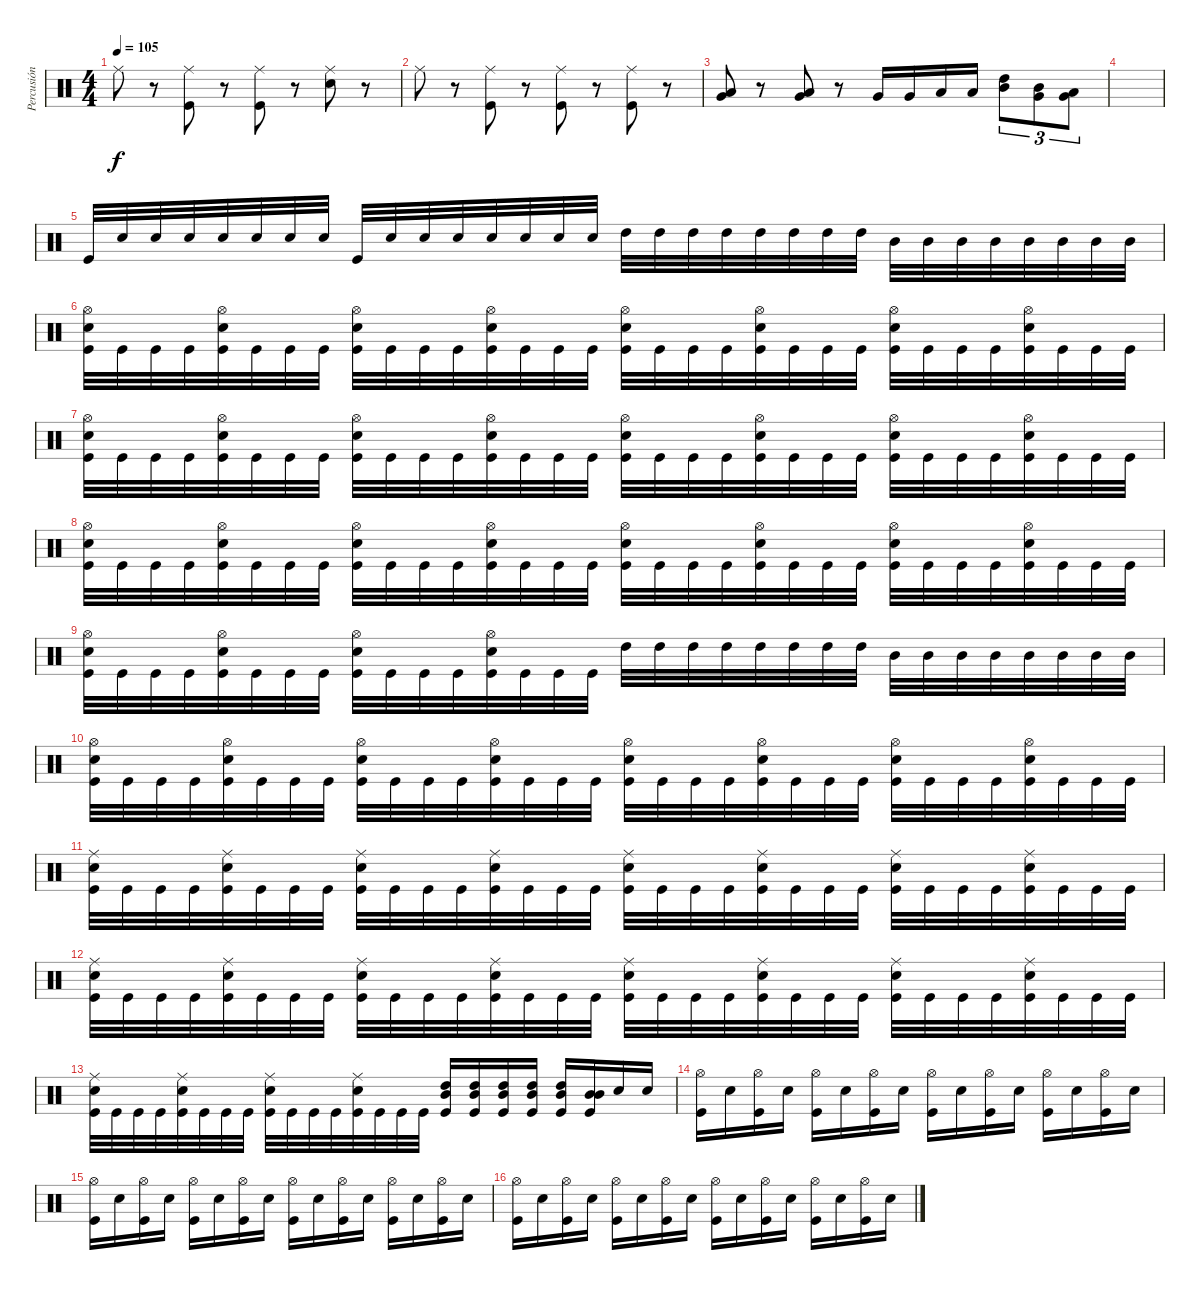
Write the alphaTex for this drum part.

\track ("Percusión" "Percusión") {instrument percussion}
\staff {score}
\articulation defaults
\ts (4 4)
\tempo 105
\clef neutral
\ks c "Ride (middle)".8{dy f}
r.8 ("Ride (middle)" "Kick (hit)").8 r.8 ("Ride (middle)" "Kick (hit)").8 r.8 ("Ride (middle)" "Snare (hit) 2").8 r.8 |
"Ride (middle)".8 r.8 ("Ride (middle)" "Kick (hit)").8 r.8 ("Ride (middle)" "Kick (hit)").8 r.8 ("Ride (middle)" "Kick (hit)").8 r.8 |
("Very Low Tom (hit)" "Low Floor Tom (hit)").8 r.8 ("Very Low Tom (hit)" "Low Floor Tom (hit)").8 r.8 "Very Low Tom (hit)".16 "Very Low Tom (hit)".16 "Low Floor Tom (hit)".16 "Low Floor Tom (hit)".16 ("High Tom (hit)" "Mid Tom (hit)").8{tu (3 2)} ("Mid Tom (hit)" "Very Low Tom (hit)").8{tu (3 2)} ("Very Low Tom (hit)" "Low Floor Tom (hit)").8{tu (3 2)} |
|
"Kick (hit)".32 "Snare (hit) 2".32 "Snare (hit) 2".32 "Snare (hit) 2".32 "Snare (hit) 2".32 "Snare (hit) 2".32 "Snare (hit) 2".32 "Snare (hit) 2".32 "Kick (hit)".32 "Snare (hit) 2".32 "Snare (hit) 2".32 "Snare (hit) 2".32 "Snare (hit) 2".32 "Snare (hit) 2".32 "Snare (hit) 2".32 "Snare (hit) 2".32 "High Tom (hit)".32 "High Tom (hit)".32 "High Tom (hit)".32 "High Tom (hit)".32 "High Tom (hit)".32 "High Tom (hit)".32 "High Tom (hit)".32 "High Tom (hit)".32 "Mid Tom (hit)".32 "Mid Tom (hit)".32 "Mid Tom (hit)".32 "Mid Tom (hit)".32 "Mid Tom (hit)".32 "Mid Tom (hit)".32 "Mid Tom (hit)".32 "Mid Tom (hit)".32 |
("Hi-Hat (open)" "Snare (hit) 2" "Kick (hit)").32 "Kick (hit)".32 "Kick (hit)".32 "Kick (hit)".32 ("Hi-Hat (open)" "Snare (hit) 2" "Kick (hit)").32 "Kick (hit)".32 "Kick (hit)".32 "Kick (hit)".32 ("Hi-Hat (open)" "Snare (hit) 2" "Kick (hit)").32 "Kick (hit)".32 "Kick (hit)".32 "Kick (hit)".32 ("Hi-Hat (open)" "Snare (hit) 2" "Kick (hit)").32 "Kick (hit)".32 "Kick (hit)".32 "Kick (hit)".32 ("Hi-Hat (open)" "Snare (hit) 2" "Kick (hit)").32 "Kick (hit)".32 "Kick (hit)".32 "Kick (hit)".32 ("Hi-Hat (open)" "Snare (hit) 2" "Kick (hit)").32 "Kick (hit)".32 "Kick (hit)".32 "Kick (hit)".32 ("Hi-Hat (open)" "Snare (hit) 2" "Kick (hit)").32 "Kick (hit)".32 "Kick (hit)".32 "Kick (hit)".32 ("Hi-Hat (open)" "Snare (hit) 2" "Kick (hit)").32 "Kick (hit)".32 "Kick (hit)".32 "Kick (hit)".32 |
("Hi-Hat (open)" "Snare (hit) 2" "Kick (hit)").32 "Kick (hit)".32 "Kick (hit)".32 "Kick (hit)".32 ("Hi-Hat (open)" "Snare (hit) 2" "Kick (hit)").32 "Kick (hit)".32 "Kick (hit)".32 "Kick (hit)".32 ("Hi-Hat (open)" "Snare (hit) 2" "Kick (hit)").32 "Kick (hit)".32 "Kick (hit)".32 "Kick (hit)".32 ("Hi-Hat (open)" "Snare (hit) 2" "Kick (hit)").32 "Kick (hit)".32 "Kick (hit)".32 "Kick (hit)".32 ("Hi-Hat (open)" "Snare (hit) 2" "Kick (hit)").32 "Kick (hit)".32 "Kick (hit)".32 "Kick (hit)".32 ("Hi-Hat (open)" "Snare (hit) 2" "Kick (hit)").32 "Kick (hit)".32 "Kick (hit)".32 "Kick (hit)".32 ("Hi-Hat (open)" "Snare (hit) 2" "Kick (hit)").32 "Kick (hit)".32 "Kick (hit)".32 "Kick (hit)".32 ("Hi-Hat (open)" "Snare (hit) 2" "Kick (hit)").32 "Kick (hit)".32 "Kick (hit)".32 "Kick (hit)".32 |
("Hi-Hat (open)" "Snare (hit) 2" "Kick (hit)").32 "Kick (hit)".32 "Kick (hit)".32 "Kick (hit)".32 ("Hi-Hat (open)" "Snare (hit) 2" "Kick (hit)").32 "Kick (hit)".32 "Kick (hit)".32 "Kick (hit)".32 ("Hi-Hat (open)" "Snare (hit) 2" "Kick (hit)").32 "Kick (hit)".32 "Kick (hit)".32 "Kick (hit)".32 ("Hi-Hat (open)" "Snare (hit) 2" "Kick (hit)").32 "Kick (hit)".32 "Kick (hit)".32 "Kick (hit)".32 ("Hi-Hat (open)" "Snare (hit) 2" "Kick (hit)").32 "Kick (hit)".32 "Kick (hit)".32 "Kick (hit)".32 ("Hi-Hat (open)" "Snare (hit) 2" "Kick (hit)").32 "Kick (hit)".32 "Kick (hit)".32 "Kick (hit)".32 ("Hi-Hat (open)" "Snare (hit) 2" "Kick (hit)").32 "Kick (hit)".32 "Kick (hit)".32 "Kick (hit)".32 ("Hi-Hat (open)" "Snare (hit) 2" "Kick (hit)").32 "Kick (hit)".32 "Kick (hit)".32 "Kick (hit)".32 |
("Hi-Hat (open)" "Snare (hit) 2" "Kick (hit)").32 "Kick (hit)".32 "Kick (hit)".32 "Kick (hit)".32 ("Hi-Hat (open)" "Snare (hit) 2" "Kick (hit)").32 "Kick (hit)".32 "Kick (hit)".32 "Kick (hit)".32 ("Hi-Hat (open)" "Snare (hit) 2" "Kick (hit)").32 "Kick (hit)".32 "Kick (hit)".32 "Kick (hit)".32 ("Hi-Hat (open)" "Snare (hit) 2" "Kick (hit)").32 "Kick (hit)".32 "Kick (hit)".32 "Kick (hit)".32 "High Tom (hit)".32 "High Tom (hit)".32 "High Tom (hit)".32 "High Tom (hit)".32 "High Tom (hit)".32 "High Tom (hit)".32 "High Tom (hit)".32 "High Tom (hit)".32 "Mid Tom (hit)".32 "Mid Tom (hit)".32 "Mid Tom (hit)".32 "Mid Tom (hit)".32 "Mid Tom (hit)".32 "Mid Tom (hit)".32 "Mid Tom (hit)".32 "Mid Tom (hit)".32 |
("Hi-Hat (open)" "Snare (hit) 2" "Kick (hit)").32 "Kick (hit)".32 "Kick (hit)".32 "Kick (hit)".32 ("Hi-Hat (open)" "Snare (hit) 2" "Kick (hit)").32 "Kick (hit)".32 "Kick (hit)".32 "Kick (hit)".32 ("Hi-Hat (open)" "Snare (hit) 2" "Kick (hit)").32 "Kick (hit)".32 "Kick (hit)".32 "Kick (hit)".32 ("Hi-Hat (open)" "Snare (hit) 2" "Kick (hit)").32 "Kick (hit)".32 "Kick (hit)".32 "Kick (hit)".32 ("Hi-Hat (open)" "Snare (hit) 2" "Kick (hit)").32 "Kick (hit)".32 "Kick (hit)".32 "Kick (hit)".32 ("Hi-Hat (open)" "Snare (hit) 2" "Kick (hit)").32 "Kick (hit)".32 "Kick (hit)".32 "Kick (hit)".32 ("Hi-Hat (open)" "Snare (hit) 2" "Kick (hit)").32 "Kick (hit)".32 "Kick (hit)".32 "Kick (hit)".32 ("Hi-Hat (open)" "Snare (hit) 2" "Kick (hit)").32 "Kick (hit)".32 "Kick (hit)".32 "Kick (hit)".32 |
("Ride (middle)" "Snare (hit) 2" "Kick (hit)").32 "Kick (hit)".32 "Kick (hit)".32 "Kick (hit)".32 ("Ride (middle)" "Snare (hit) 2" "Kick (hit)").32 "Kick (hit)".32 "Kick (hit)".32 "Kick (hit)".32 ("Ride (middle)" "Snare (hit) 2" "Kick (hit)").32 "Kick (hit)".32 "Kick (hit)".32 "Kick (hit)".32 ("Ride (middle)" "Snare (hit) 2" "Kick (hit)").32 "Kick (hit)".32 "Kick (hit)".32 "Kick (hit)".32 ("Ride (middle)" "Snare (hit) 2" "Kick (hit)").32 "Kick (hit)".32 "Kick (hit)".32 "Kick (hit)".32 ("Ride (middle)" "Snare (hit) 2" "Kick (hit)").32 "Kick (hit)".32 "Kick (hit)".32 "Kick (hit)".32 ("Ride (middle)" "Snare (hit) 2" "Kick (hit)").32 "Kick (hit)".32 "Kick (hit)".32 "Kick (hit)".32 ("Ride (middle)" "Snare (hit) 2" "Kick (hit)").32 "Kick (hit)".32 "Kick (hit)".32 "Kick (hit)".32 |
("Ride (middle)" "Snare (hit) 2" "Kick (hit)").32 "Kick (hit)".32 "Kick (hit)".32 "Kick (hit)".32 ("Ride (middle)" "Snare (hit) 2" "Kick (hit)").32 "Kick (hit)".32 "Kick (hit)".32 "Kick (hit)".32 ("Ride (middle)" "Snare (hit) 2" "Kick (hit)").32 "Kick (hit)".32 "Kick (hit)".32 "Kick (hit)".32 ("Ride (middle)" "Snare (hit) 2" "Kick (hit)").32 "Kick (hit)".32 "Kick (hit)".32 "Kick (hit)".32 ("Ride (middle)" "Snare (hit) 2" "Kick (hit)").32 "Kick (hit)".32 "Kick (hit)".32 "Kick (hit)".32 ("Ride (middle)" "Snare (hit) 2" "Kick (hit)").32 "Kick (hit)".32 "Kick (hit)".32 "Kick (hit)".32 ("Ride (middle)" "Snare (hit) 2" "Kick (hit)").32 "Kick (hit)".32 "Kick (hit)".32 "Kick (hit)".32 ("Ride (middle)" "Snare (hit) 2" "Kick (hit)").32 "Kick (hit)".32 "Kick (hit)".32 "Kick (hit)".32 |
("Ride (middle)" "Snare (hit) 2" "Kick (hit)").32 "Kick (hit)".32 "Kick (hit)".32 "Kick (hit)".32 ("Ride (middle)" "Snare (hit) 2" "Kick (hit)").32 "Kick (hit)".32 "Kick (hit)".32 "Kick (hit)".32 ("Ride (middle)" "Snare (hit) 2" "Kick (hit)").32 "Kick (hit)".32 "Kick (hit)".32 "Kick (hit)".32 ("Ride (middle)" "Snare (hit) 2" "Kick (hit)").32 "Kick (hit)".32 "Kick (hit)".32 "Kick (hit)".32 ("High Tom (hit)" "Mid Tom (hit)" "Kick (hit)").16 ("High Tom (hit)" "Mid Tom (hit)" "Kick (hit)").16 ("High Tom (hit)" "Mid Tom (hit)" "Kick (hit)").16 ("High Tom (hit)" "Mid Tom (hit)" "Kick (hit)").16 ("High Tom (hit)" "Mid Tom (hit)" "Kick (hit)").16 ("Mid Tom (hit)" "Mid Tom (hit)" "Kick (hit)").16 "Snare (hit) 2".16 "Snare (hit) 2".16 |
("Hi-Hat (open)" "Kick (hit)").16 "Snare (hit) 2".16 ("Hi-Hat (open)" "Kick (hit)").16 "Snare (hit) 2".16 ("Hi-Hat (open)" "Kick (hit)").16 "Snare (hit) 2".16 ("Hi-Hat (open)" "Kick (hit)").16 "Snare (hit) 2".16 ("Hi-Hat (open)" "Kick (hit)").16 "Snare (hit) 2".16 ("Hi-Hat (open)" "Kick (hit)").16 "Snare (hit) 2".16 ("Hi-Hat (open)" "Kick (hit)").16 "Snare (hit) 2".16 ("Hi-Hat (open)" "Kick (hit)").16 "Snare (hit) 2".16 |
("Hi-Hat (open)" "Kick (hit)").16 "Snare (hit) 2".16 ("Hi-Hat (open)" "Kick (hit)").16 "Snare (hit) 2".16 ("Hi-Hat (open)" "Kick (hit)").16 "Snare (hit) 2".16 ("Hi-Hat (open)" "Kick (hit)").16 "Snare (hit) 2".16 ("Hi-Hat (open)" "Kick (hit)").16 "Snare (hit) 2".16 ("Hi-Hat (open)" "Kick (hit)").16 "Snare (hit) 2".16 ("Hi-Hat (open)" "Kick (hit)").16 "Snare (hit) 2".16 ("Hi-Hat (open)" "Kick (hit)").16 "Snare (hit) 2".16 |
("Hi-Hat (open)" "Kick (hit)").16 "Snare (hit) 2".16 ("Hi-Hat (open)" "Kick (hit)").16 "Snare (hit) 2".16 ("Hi-Hat (open)" "Kick (hit)").16 "Snare (hit) 2".16 ("Hi-Hat (open)" "Kick (hit)").16 "Snare (hit) 2".16 ("Hi-Hat (open)" "Kick (hit)").16 "Snare (hit) 2".16 ("Hi-Hat (open)" "Kick (hit)").16 "Snare (hit) 2".16 ("Hi-Hat (open)" "Kick (hit)").16 "Snare (hit) 2".16 ("Hi-Hat (open)" "Kick (hit)").16 "Snare (hit) 2".16
